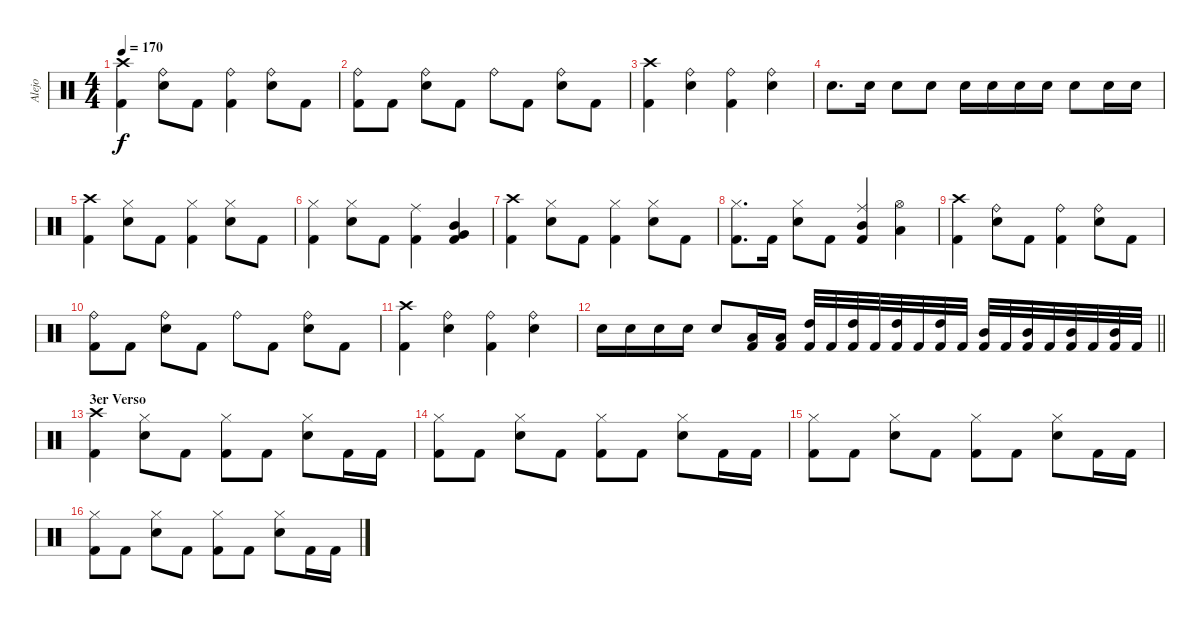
\track ("Alejo" "Alejo") {instrument percussion}
\staff {score}
\articulation defaults
\ts (4 4)
\tempo 170
\clef neutral
\ks c
("Crash high (hit)" "Kick (hit) 2").4{dy f} ("Snare (hit) 2" "Ride (bell)").8 "Kick (hit) 2".8 ("Kick (hit) 2" "Ride (bell)").4 ("Snare (hit) 2" "Ride (bell)").8 "Kick (hit) 2".8 |
("Kick (hit) 2" "Ride (bell)").8 "Kick (hit) 2".8 ("Ride (bell)" "Snare (hit) 2").8 "Kick (hit) 2".8 "Ride (bell)".8 "Kick (hit) 2".8 ("Snare (hit) 2" "Ride (bell)").8 "Kick (hit) 2".8 |
("Crash high (hit)" "Kick (hit) 2").4 ("Snare (hit) 2" "Ride (bell)").4 ("Kick (hit) 2" "Ride (bell)").4 ("Snare (hit) 2" "Ride (bell)").4 |
"Snare (hit) 2".8{d} "Snare (hit) 2".16 "Snare (hit) 2".8 "Snare (hit) 2".8 "Snare (hit) 2".16 "Snare (hit) 2".16 "Snare (hit) 2".16 "Snare (hit) 2".16 "Snare (hit) 2".8 "Snare (hit) 2".16 "Snare (hit) 2".16 |
("Crash high (hit)" "Kick (hit) 2").4 ("Snare (hit) 2" "Hi-Hat (closed)").8 "Kick (hit) 2".8 ("Kick (hit) 2" "Hi-Hat (closed)").4 ("Snare (hit) 2" "Hi-Hat (closed)").8 "Kick (hit) 2".8 |
("Kick (hit) 2" "Hi-Hat (closed)").4 ("Snare (hit) 2" "Hi-Hat (closed)").8 "Kick (hit) 2".8 ("Kick (hit) 2" "Ride (middle)").4 ("Mid Tom (hit)" "Very Low Tom (hit)" "Kick (hit) 2").4 |
("Crash high (hit)" "Kick (hit) 2").4 ("Snare (hit) 2" "Hi-Hat (closed)").8 "Kick (hit) 2".8 ("Kick (hit) 2" "Hi-Hat (closed)").4 ("Snare (hit) 2" "Hi-Hat (closed)").8 "Kick (hit) 2".8 |
("Kick (hit) 2" "Hi-Hat (closed)").8{d} "Kick (hit) 2".16 ("Snare (hit) 2" "Hi-Hat (closed)").8 "Kick (hit) 2".8 ("Kick (hit) 2" "Ride (middle)" "Mid Tom (hit)").4 ("Hi-Hat (open)" "Low Tom (hit)").4 |
("Crash high (hit)" "Kick (hit) 2").4 ("Snare (hit) 2" "Ride (bell)").8 "Kick (hit) 2".8 ("Kick (hit) 2" "Ride (bell)").4 ("Snare (hit) 2" "Ride (bell)").8 "Kick (hit) 2".8 |
("Kick (hit) 2" "Ride (bell)").8 "Kick (hit) 2".8 ("Ride (bell)" "Snare (hit) 2").8 "Kick (hit) 2".8 "Ride (bell)".8 "Kick (hit) 2".8 ("Snare (hit) 2" "Ride (bell)").8 "Kick (hit) 2".8 |
("Crash high (hit)" "Kick (hit) 2").4 ("Snare (hit) 2" "Ride (bell)").4 ("Kick (hit) 2" "Ride (bell)").4 ("Snare (hit) 2" "Ride (bell)").4 |
\barLineRight lightlight "Snare (hit) 2".16 "Snare (hit) 2".16 "Snare (hit) 2".16 "Snare (hit) 2".16 "Snare (hit) 2".8
("Kick (hit) 2" "Low Tom (hit)").16 ("Kick (hit) 2" "Low Tom (hit)").16 ("Kick (hit) 2" "High Tom (hit)").32 "Kick (hit) 2".32 ("Kick (hit) 2" "High Tom (hit)").32 "Kick (hit) 2".32 ("Kick (hit) 2" "High Tom (hit)").32 "Kick (hit) 2".32 ("Kick (hit) 2" "High Tom (hit)").32 "Kick (hit) 2".32 ("Kick (hit) 2" "Mid Tom (hit)").32 "Kick (hit) 2".32 ("Kick (hit) 2" "Mid Tom (hit)").32 "Kick (hit) 2".32 ("Kick (hit) 2" "Mid Tom (hit)").32 "Kick (hit) 2".32 ("Kick (hit) 2" "Mid Tom (hit)").32 "Kick (hit) 2".32 |
\section ("" "3er Verso")
("Kick (hit) 2" "Crash high (hit)").4 ("Snare (hit) 2" "Hi-Hat (closed)").8 "Kick (hit) 2".8 ("Hi-Hat (closed)" "Kick (hit) 2").8 "Kick (hit) 2".8 ("Snare (hit) 2" "Hi-Hat (closed)").8 "Kick (hit) 2".16 "Kick (hit) 2".16 |
("Hi-Hat (closed)" "Kick (hit) 2").8 "Kick (hit) 2".8 ("Snare (hit) 2" "Hi-Hat (closed)").8 "Kick (hit) 2".8 ("Hi-Hat (closed)" "Kick (hit) 2").8 "Kick (hit) 2".8 ("Snare (hit) 2" "Hi-Hat (closed)").8 "Kick (hit) 2".16 "Kick (hit) 2".16 |
("Hi-Hat (closed)" "Kick (hit) 2").8 "Kick (hit) 2".8 ("Snare (hit) 2" "Hi-Hat (closed)").8 "Kick (hit) 2".8 ("Hi-Hat (closed)" "Kick (hit) 2").8 "Kick (hit) 2".8 ("Snare (hit) 2" "Hi-Hat (closed)").8 "Kick (hit) 2".16 "Kick (hit) 2".16 |
("Hi-Hat (closed)" "Kick (hit) 2").8 "Kick (hit) 2".8 ("Snare (hit) 2" "Hi-Hat (closed)").8 "Kick (hit) 2".8 ("Hi-Hat (closed)" "Kick (hit) 2").8 "Kick (hit) 2".8 ("Snare (hit) 2" "Hi-Hat (closed)").8 "Kick (hit) 2".16 "Kick (hit) 2".16
